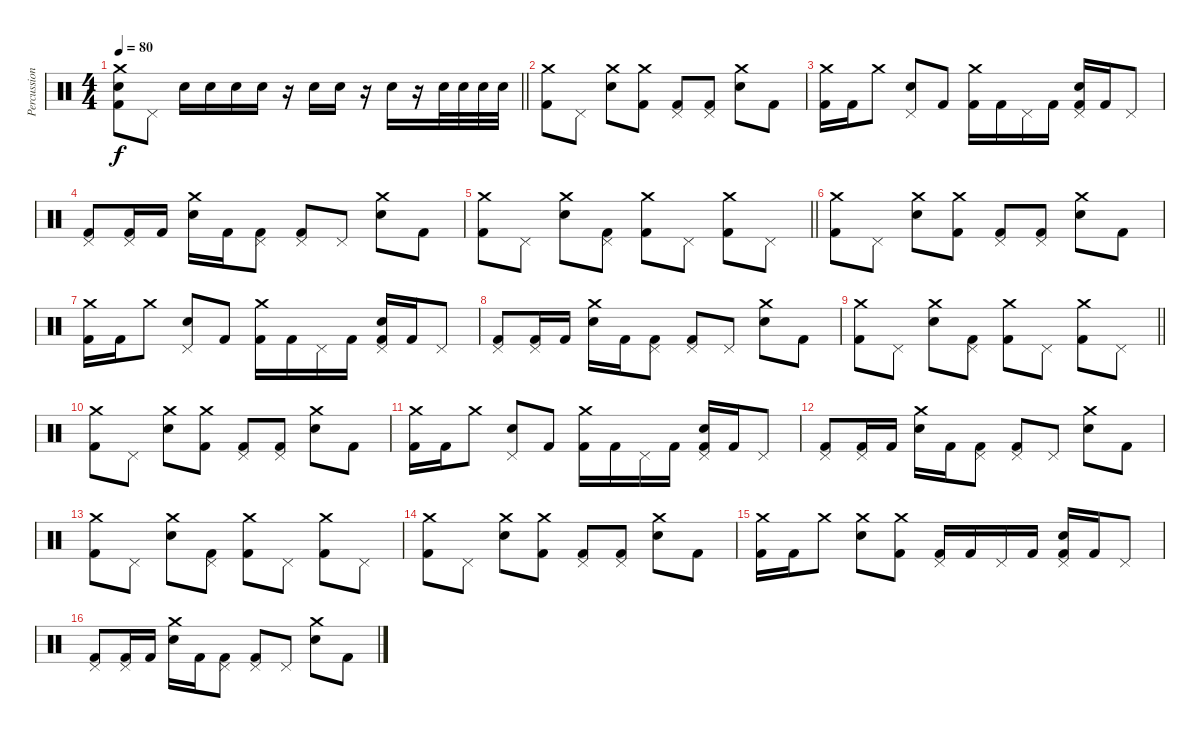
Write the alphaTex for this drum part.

\track ("Percussion" "Percussion") {instrument percussion}
\staff {score}
\articulation defaults
\ts (4 4)
\tempo 80
\clef neutral
\barLineRight lightlight
\ks c
("Crash medium (hit)" "Electric Snare (hit)" "Kick (hit) 2").8{dy f} "Pedal Hi-Hat (hit)".8 "Electric Snare (hit)".16 "Electric Snare (hit)".16 "Electric Snare (hit)".16 "Electric Snare (hit)".16 r.16 "Electric Snare (hit)".16 "Electric Snare (hit)".16 r.16 "Electric Snare (hit)".16 r.16 "Electric Snare (hit)".32 "Electric Snare (hit)".32 "Electric Snare (hit)".32 "Electric Snare (hit)".32 |
("Crash medium (hit)" "Kick (hit) 2").8 "Pedal Hi-Hat (hit)".8 ("Crash medium (hit)" "Electric Snare (hit)").8 ("Crash medium (hit)" "Kick (hit) 2").8 ("Pedal Hi-Hat (hit)" "Kick (hit) 2").8 ("Pedal Hi-Hat (hit)" "Kick (hit) 2").8 ("Crash medium (hit)" "Electric Snare (hit)").8 "Kick (hit) 2".8 |
("Crash medium (hit)" "Kick (hit) 2").16 "Kick (hit) 2".16 "Crash medium (hit)".8 ("Pedal Hi-Hat (hit)" "Electric Snare (hit)").8 "Kick (hit) 2".8 ("Crash medium (hit)" "Kick (hit) 2").16 "Kick (hit) 2".16 "Pedal Hi-Hat (hit)".16 "Kick (hit) 2".16 ("Pedal Hi-Hat (hit)" "Electric Snare (hit)" "Kick (hit) 2").16 "Kick (hit) 2".16 "Pedal Hi-Hat (hit)".8 |
("Pedal Hi-Hat (hit)" "Kick (hit) 2").8 ("Pedal Hi-Hat (hit)" "Kick (hit) 2").16 "Kick (hit) 2".16 ("Crash medium (hit)" "Electric Snare (hit)").16 "Kick (hit) 2".16 ("Pedal Hi-Hat (hit)" "Kick (hit) 2").8 ("Pedal Hi-Hat (hit)" "Kick (hit) 2").8 "Pedal Hi-Hat (hit)".8 ("Crash medium (hit)" "Electric Snare (hit)").8 "Kick (hit) 2".8 |
\barLineRight lightlight
("Crash medium (hit)" "Kick (hit) 2").8 "Pedal Hi-Hat (hit)".8 ("Crash medium (hit)" "Electric Snare (hit)").8 ("Pedal Hi-Hat (hit)" "Kick (hit) 2").8 ("Crash medium (hit)" "Kick (hit) 2").8 "Pedal Hi-Hat (hit)".8 ("Crash medium (hit)" "Kick (hit) 2").8 "Pedal Hi-Hat (hit)".8 |
("Crash medium (hit)" "Kick (hit) 2").8 "Pedal Hi-Hat (hit)".8 ("Crash medium (hit)" "Electric Snare (hit)").8 ("Crash medium (hit)" "Kick (hit) 2").8 ("Pedal Hi-Hat (hit)" "Kick (hit) 2").8 ("Pedal Hi-Hat (hit)" "Kick (hit) 2").8 ("Crash medium (hit)" "Electric Snare (hit)").8 "Kick (hit) 2".8 |
("Crash medium (hit)" "Kick (hit) 2").16 "Kick (hit) 2".16 "Crash medium (hit)".8 ("Pedal Hi-Hat (hit)" "Electric Snare (hit)").8 "Kick (hit) 2".8 ("Crash medium (hit)" "Kick (hit) 2").16 "Kick (hit) 2".16 "Pedal Hi-Hat (hit)".16 "Kick (hit) 2".16 ("Pedal Hi-Hat (hit)" "Electric Snare (hit)" "Kick (hit) 2").16 "Kick (hit) 2".16 "Pedal Hi-Hat (hit)".8 |
("Pedal Hi-Hat (hit)" "Kick (hit) 2").8 ("Pedal Hi-Hat (hit)" "Kick (hit) 2").16 "Kick (hit) 2".16 ("Crash medium (hit)" "Electric Snare (hit)").16 "Kick (hit) 2".16 ("Pedal Hi-Hat (hit)" "Kick (hit) 2").8 ("Pedal Hi-Hat (hit)" "Kick (hit) 2").8 "Pedal Hi-Hat (hit)".8 ("Crash medium (hit)" "Electric Snare (hit)").8 "Kick (hit) 2".8 |
\barLineRight lightlight
("Crash medium (hit)" "Kick (hit) 2").8 "Pedal Hi-Hat (hit)".8 ("Crash medium (hit)" "Electric Snare (hit)").8 ("Pedal Hi-Hat (hit)" "Kick (hit) 2").8 ("Crash medium (hit)" "Kick (hit) 2").8 "Pedal Hi-Hat (hit)".8 ("Crash medium (hit)" "Kick (hit) 2").8 "Pedal Hi-Hat (hit)".8 |
("Crash medium (hit)" "Kick (hit) 2").8 "Pedal Hi-Hat (hit)".8 ("Crash medium (hit)" "Electric Snare (hit)").8 ("Crash medium (hit)" "Kick (hit) 2").8 ("Pedal Hi-Hat (hit)" "Kick (hit) 2").8 ("Pedal Hi-Hat (hit)" "Kick (hit) 2").8 ("Crash medium (hit)" "Electric Snare (hit)").8 "Kick (hit) 2".8 |
("Crash medium (hit)" "Kick (hit) 2").16 "Kick (hit) 2".16 "Crash medium (hit)".8 ("Pedal Hi-Hat (hit)" "Electric Snare (hit)").8 "Kick (hit) 2".8 ("Crash medium (hit)" "Kick (hit) 2").16 "Kick (hit) 2".16 "Pedal Hi-Hat (hit)".16 "Kick (hit) 2".16 ("Pedal Hi-Hat (hit)" "Electric Snare (hit)" "Kick (hit) 2").16 "Kick (hit) 2".16 "Pedal Hi-Hat (hit)".8 |
("Pedal Hi-Hat (hit)" "Kick (hit) 2").8 ("Pedal Hi-Hat (hit)" "Kick (hit) 2").16 "Kick (hit) 2".16 ("Crash medium (hit)" "Electric Snare (hit)").16 "Kick (hit) 2".16 ("Pedal Hi-Hat (hit)" "Kick (hit) 2").8 ("Pedal Hi-Hat (hit)" "Kick (hit) 2").8 "Pedal Hi-Hat (hit)".8 ("Crash medium (hit)" "Electric Snare (hit)").8 "Kick (hit) 2".8 |
("Crash medium (hit)" "Kick (hit) 2").8 "Pedal Hi-Hat (hit)".8 ("Crash medium (hit)" "Electric Snare (hit)").8 ("Pedal Hi-Hat (hit)" "Kick (hit) 2").8 ("Crash medium (hit)" "Kick (hit) 2").8 "Pedal Hi-Hat (hit)".8 ("Crash medium (hit)" "Kick (hit) 2").8 "Pedal Hi-Hat (hit)".8 |
("Crash medium (hit)" "Kick (hit) 2").8 "Pedal Hi-Hat (hit)".8 ("Crash medium (hit)" "Electric Snare (hit)").8 ("Crash medium (hit)" "Kick (hit) 2").8 ("Pedal Hi-Hat (hit)" "Kick (hit) 2").8 ("Pedal Hi-Hat (hit)" "Kick (hit) 2").8 ("Crash medium (hit)" "Electric Snare (hit)").8 "Kick (hit) 2".8 |
("Crash medium (hit)" "Kick (hit) 2").16 "Kick (hit) 2".16 "Crash medium (hit)".8 ("Crash medium (hit)" "Electric Snare (hit)").8 ("Crash medium (hit)" "Kick (hit) 2").8 ("Pedal Hi-Hat (hit)" "Kick (hit) 2").16 "Kick (hit) 2".16 "Pedal Hi-Hat (hit)".16 "Kick (hit) 2".16 ("Pedal Hi-Hat (hit)" "Electric Snare (hit)" "Kick (hit) 2").16 "Kick (hit) 2".16 "Pedal Hi-Hat (hit)".8 |
("Pedal Hi-Hat (hit)" "Kick (hit) 2").8 ("Pedal Hi-Hat (hit)" "Kick (hit) 2").16 "Kick (hit) 2".16 ("Crash medium (hit)" "Electric Snare (hit)").16 "Kick (hit) 2".16 ("Pedal Hi-Hat (hit)" "Kick (hit) 2").8 ("Pedal Hi-Hat (hit)" "Kick (hit) 2").8 "Pedal Hi-Hat (hit)".8 ("Crash medium (hit)" "Electric Snare (hit)").8 "Kick (hit) 2".8
